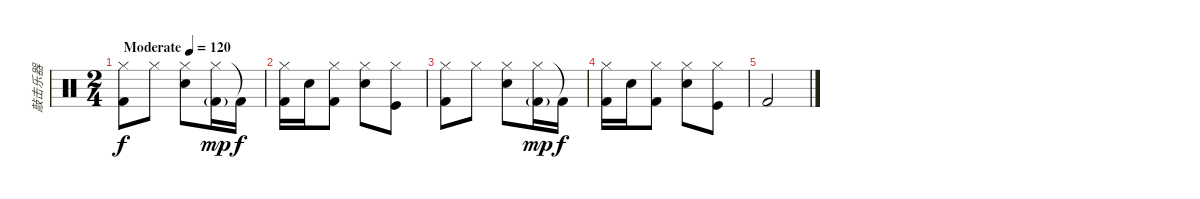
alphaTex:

\track ("敲击乐器" "敲击乐器") {instrument percussion}
\staff {score}
\articulation defaults
\ts (2 4)
\tempo (120 "Moderate")
\clef neutral
\ks c
("Hi-Hat (closed)" "Kick (hit) 2").8{dy f} "Hi-Hat (closed)".8 ("Hi-Hat (closed)" "Snare (hit) 2").8 ("Hi-Hat (closed)" "Kick (hit) 2"{g}).16{dy mp} "Kick (hit) 2"{t}.16{dy f} |
("Hi-Hat (closed)" "Kick (hit) 2").16 "Snare (hit) 2".16 ("Hi-Hat (closed)" "Kick (hit) 2").8 ("Hi-Hat (closed)" "Snare (hit) 2").8 ("Hi-Hat (closed)" "Kick (hit)").8 |
("Hi-Hat (closed)" "Kick (hit) 2").8 "Hi-Hat (closed)".8 ("Hi-Hat (closed)" "Snare (hit) 2").8 ("Hi-Hat (closed)" "Kick (hit) 2"{g}).16{dy mp} "Kick (hit) 2"{t}.16{dy f} |
("Hi-Hat (closed)" "Kick (hit) 2").16 "Snare (hit) 2".16 ("Hi-Hat (closed)" "Kick (hit) 2").8 ("Hi-Hat (closed)" "Snare (hit) 2").8 ("Hi-Hat (closed)" "Kick (hit)").8 |
\ks aminor "Kick (hit) 2".2
